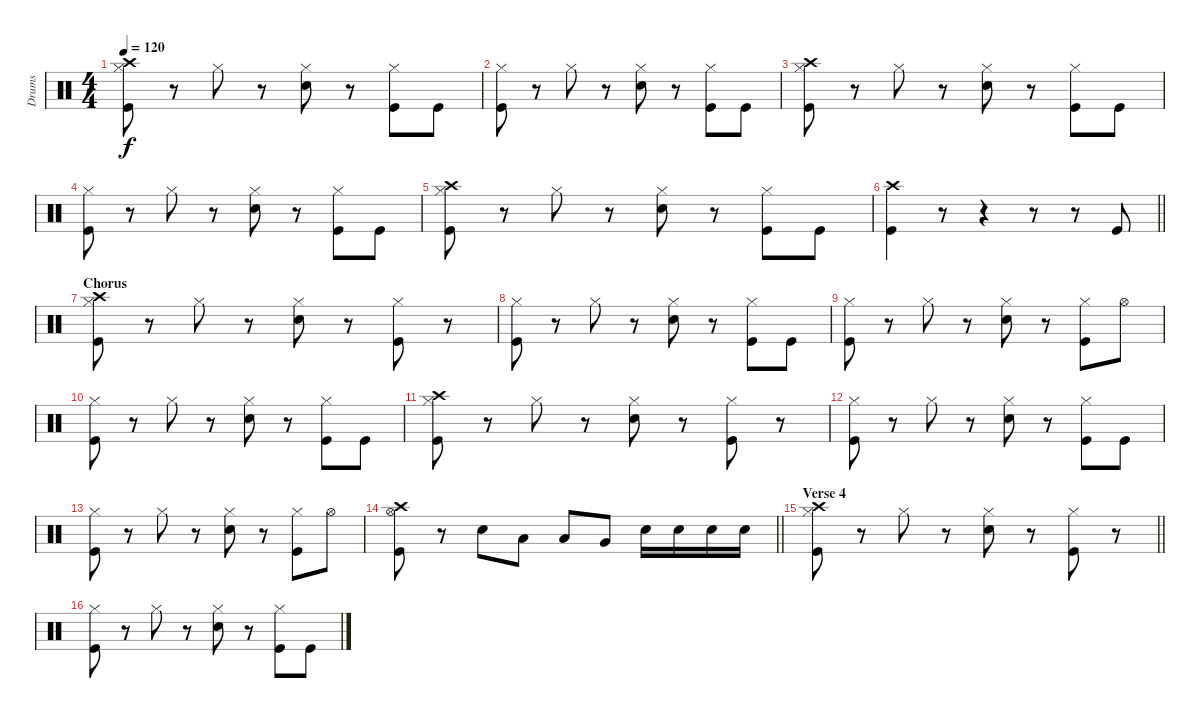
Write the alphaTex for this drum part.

\track ("Drums" "Drums") {instrument percussion}
\staff {score}
\articulation defaults
\ts (4 4)
\tempo 120
\clef neutral
\ks c
("Crash high (hit)" "Hi-Hat (closed)" "Kick (hit)").8{dy f} r.8 "Hi-Hat (closed)".8 r.8 ("Hi-Hat (closed)" "Snare (hit) 2").8 r.8 ("Hi-Hat (closed)" "Kick (hit)").8 "Kick (hit)".8 |
("Hi-Hat (closed)" "Kick (hit)").8 r.8 "Hi-Hat (closed)".8 r.8 ("Hi-Hat (closed)" "Snare (hit) 2").8 r.8 ("Hi-Hat (closed)" "Kick (hit)").8 "Kick (hit)".8 |
("Crash high (hit)" "Hi-Hat (closed)" "Kick (hit)").8 r.8 "Hi-Hat (closed)".8 r.8 ("Hi-Hat (closed)" "Snare (hit) 2").8 r.8 ("Hi-Hat (closed)" "Kick (hit)").8 "Kick (hit)".8 |
("Hi-Hat (closed)" "Kick (hit)").8 r.8 "Hi-Hat (closed)".8 r.8 ("Hi-Hat (closed)" "Snare (hit) 2").8 r.8 ("Hi-Hat (closed)" "Kick (hit)").8 "Kick (hit)".8 |
("Crash high (hit)" "Hi-Hat (closed)" "Kick (hit)").8 r.8 "Hi-Hat (closed)".8 r.8 ("Hi-Hat (closed)" "Snare (hit) 2").8 r.8 ("Hi-Hat (closed)" "Kick (hit)").8 "Kick (hit)".8 |
\barLineRight lightlight
("Crash high (hit)" "Kick (hit)").4 r.8 r.4 r.8 r.8 "Kick (hit)".8 |
\section ("" "Chorus")
("Crash high (hit)" "Hi-Hat (closed)" "Kick (hit)").8 r.8 "Hi-Hat (closed)".8 r.8 ("Hi-Hat (closed)" "Snare (hit) 2").8 r.8 ("Hi-Hat (closed)" "Kick (hit)").8 r.8 |
("Hi-Hat (closed)" "Kick (hit)").8 r.8 "Hi-Hat (closed)".8 r.8 ("Hi-Hat (closed)" "Snare (hit) 2").8 r.8 ("Hi-Hat (closed)" "Kick (hit)").8 "Kick (hit)".8 |
("Hi-Hat (closed)" "Kick (hit)").8 r.8 "Hi-Hat (closed)".8 r.8 ("Hi-Hat (closed)" "Snare (hit) 2").8 r.8 ("Hi-Hat (closed)" "Kick (hit)").8 "Hi-Hat (open)".8 |
("Hi-Hat (closed)" "Kick (hit)").8 r.8 "Hi-Hat (closed)".8 r.8 ("Hi-Hat (closed)" "Snare (hit) 2").8 r.8 ("Hi-Hat (closed)" "Kick (hit)").8 "Kick (hit)".8 |
("Crash high (hit)" "Hi-Hat (closed)" "Kick (hit)").8 r.8 "Hi-Hat (closed)".8 r.8 ("Hi-Hat (closed)" "Snare (hit) 2").8 r.8 ("Hi-Hat (closed)" "Kick (hit)").8 r.8 |
("Hi-Hat (closed)" "Kick (hit)").8 r.8 "Hi-Hat (closed)".8 r.8 ("Hi-Hat (closed)" "Snare (hit) 2").8 r.8 ("Hi-Hat (closed)" "Kick (hit)").8 "Kick (hit)".8 |
("Hi-Hat (closed)" "Kick (hit)").8 r.8 "Hi-Hat (closed)".8 r.8 ("Hi-Hat (closed)" "Snare (hit) 2").8 r.8 ("Hi-Hat (closed)" "Kick (hit)").8 "Hi-Hat (open)".8 |
\barLineRight lightlight
("Crash high (hit)" "Hi-Hat (open)" "Kick (hit)").8 r.8 "Snare (hit) 2".8 "Low Tom (hit)".8 "Low Tom (hit)".8 "Very Low Tom (hit)".8 "Snare (hit) 2".16 "Snare (hit) 2".16 "Snare (hit) 2".16 "Snare (hit) 2".16 |
\section ("" "Verse 4")
\barLineRight lightlight
("Crash high (hit)" "Hi-Hat (closed)" "Kick (hit)").8 r.8 "Hi-Hat (closed)".8 r.8 ("Hi-Hat (closed)" "Snare (hit) 2").8 r.8 ("Hi-Hat (closed)" "Kick (hit)").8 r.8 |
("Hi-Hat (closed)" "Kick (hit)").8 r.8 "Hi-Hat (closed)".8 r.8 ("Hi-Hat (closed)" "Snare (hit) 2").8 r.8 ("Hi-Hat (closed)" "Kick (hit)").8 "Kick (hit)".8
